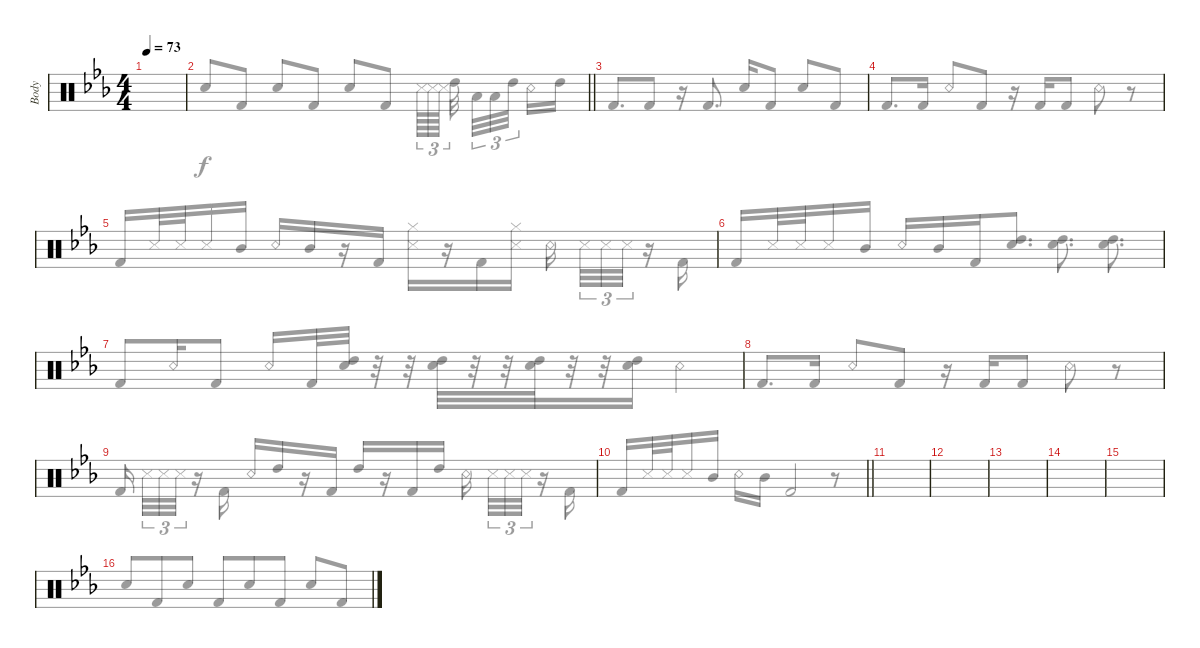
\defaultSystemsLayout 2
\bracketExtendMode groupsimilarinstruments
\otherSystemsTrackNameOrientation horizontal
\track ("Drumkit" "Body ") {instrument percussion}
\staff {score}
\articulation defaults
\voice
\ts (4 4)
\scale
1.05991
\tempo 73
\accidentals auto
\clef neutral
\ottava regular
\simile none
\ks cminor
|
\scale
0.940093
\barLineRight lightlight
|
\scale
1.06459 |
\scale
0.935414 |
\scale
1.06459 |
\scale
0.935414 |
\scale
1.06459 |
\scale
0.935414 |
\scale
1.05991 |
\scale
0.940093
\barLineRight lightlight
|
\beaming (8 3 3 2)
\scale
1.06459 |
\scale
0.935414 |
\scale
1.06459 |
\scale
0.935414 |
\scale
1.06459 |
\scale
0.935414
\voice
\clef neutral
\ottava regular
\simile none
\ks cminor "Snare (hit) 2"{acc forcenatural}.8{dy f beam Up} "Kick (hit) 2"{acc forcenatural}.8{beam Up} "Snare (hit) 2"{acc forcenatural}.8{beam Up} "Kick (hit) 2"{acc forcenatural}.8{beam Up} "Snare (hit) 2"{acc forcenatural}.8{beam Up} "Kick (hit) 2"{acc forcenatural}.8{beam Up} "Snare (hit) 2"{acc forcenatural}.8{beam Up} "Kick (hit) 2"{acc forcenatural}.8{beam Up}
|
\barLineRight lightlight "Snare (hit) 2"{acc forcenatural}.8{beam Up} "Kick (hit) 2"{acc forcenatural}.8{beam Up} "Snare (hit) 2"{acc forcenatural}.8{beam Up} "Kick (hit) 2"{acc forcenatural}.8{beam Up} "Snare (hit) 2"{acc forcenatural}.8{beam Up} "Kick (hit) 2"{acc forcenatural}.8{beam Up} "Snare (side stick) 3"{acc forcenatural}.64{tu (3 2) beam Down} "Snare (side stick) 3"{acc forcenatural}.64{tu (3 2) beam Down} "Snare (side stick) 3"{acc forcenatural}.64{tu (3 2) beam Down} "High Tom (hit)"{acc forcenatural}.32{beam Down} "Low Tom (hit)"{acc forcenatural}.32{tu (3 2) beam Down} "Low Tom (hit)"{acc forcenatural}.32{tu (3 2) beam Down} "High Tom (hit)"{acc forcenatural}.32{tu (3 2) beam Down} "Snare (rim shot)"{acc forcenatural}.16{beam Down} "High Tom (hit)"{acc forcenatural}.16{beam Down}
|
"Kick (hit) 2"{acc forcenatural}.8{d beam Up} "Kick (hit) 2"{acc forcenatural}.8{beam Up} r.16{beam Up} "Kick (hit) 2"{acc forcenatural}.8{d beam Up} "Snare (hit) 2"{acc forcenatural}.16{beam Up} "Kick (hit) 2"{acc forcenatural}.8{beam Up} "Snare (hit) 2"{acc forcenatural}.8{beam Up} "Kick (hit) 2"{acc forcenatural}.8{beam Up} |
"Kick (hit) 2"{acc forcenatural}.8{d beam Up} "Kick (hit) 2"{acc forcenatural}.16{beam Up} "Snare (rim shot)"{acc forcenatural}.8{beam Up} "Kick (hit) 2"{acc forcenatural}.8{beam Up} r.16{beam Up} "Kick (hit) 2"{acc forcenatural}.16{beam Up} "Kick (hit) 2"{acc forcenatural}.8{beam Up} "Snare (rim shot)"{acc forcenatural}.8{beam Down} r.8{beam Down} |
"Kick (hit) 2"{acc forcenatural}.16{beam Up} "Snare (side stick) 3"{acc forcenatural}.32{beam Up} "Snare (side stick) 3"{acc forcenatural}.32{beam Up} "Snare (side stick) 3"{acc forcenatural}.16{beam Up} "Mid Tom (hit)"{acc forcenatural}.16{beam Up} "Snare (rim shot)"{acc forcenatural}.16{beam Up} "Mid Tom (hit)"{acc forcenatural}.16{beam Up} r.16{beam Up} "Kick (hit) 2"{acc forcenatural}.16{beam Up} ("Hi-Hat (closed)"{acc forcenatural} "Snare (side stick) 3"{acc forcenatural}).16{beam Down} r.16{beam Down} "Kick (hit) 2"{acc forcenatural}.16{beam Down} ("Snare (side stick) 3"{acc forcenatural} "Hi-Hat (closed)"{acc forcenatural}).16{beam Down} "Snare (rim shot)"{acc forcenatural}.16{beam Down} "Snare (side stick) 3"{acc forcenatural}.32{tu (3 2) beam Down} "Snare (side stick) 3"{acc forcenatural}.32{tu (3 2) beam Down} "Snare (side stick) 3"{acc forcenatural}.32{tu (3 2) beam Down} r.16{beam Down} "Kick (hit) 2"{acc forcenatural}.16{beam Up} |
"Kick (hit) 2"{acc forcenatural}.16{beam Up} "Snare (side stick) 3"{acc forcenatural}.32{beam Up} "Snare (side stick) 3"{acc forcenatural}.32{beam Up} "Snare (side stick) 3"{acc forcenatural}.16{beam Up} "Mid Tom (hit)"{acc forcenatural}.16{beam Up} "Snare (rim shot)"{acc forcenatural}.16{beam Up} "Mid Tom (hit)"{acc forcenatural}.16{beam Up} "Kick (hit) 2"{acc forcenatural}.16{beam Up} ("Snare (hit) 2"{acc forcenatural} "High Tom (hit)"{acc forcenatural}).8{d beam Up} ("Snare (hit) 2"{acc forcenatural} "High Tom (hit)"{acc forcenatural}).8{d beam Down} ("Snare (hit) 2"{acc forcenatural} "High Tom (hit)"{acc forcenatural}).8{d beam Down} |
"Kick (hit) 2"{acc forcenatural}.8{beam Up} "Snare (rim shot)"{acc forcenatural}.16{beam Up} "Kick (hit) 2"{acc forcenatural}.8{beam Up} "Snare (rim shot)"{acc forcenatural}.16{beam Up} "Kick (hit) 2"{acc forcenatural}.32{beam Up} ("Snare (hit) 2"{acc forcenatural} "High Tom (hit)"{acc forcenatural}).32{beam Up} r.32{beam Up} r.32{beam Up} ("Snare (hit) 2"{acc forcenatural} "High Tom (hit)"{acc forcenatural}).32{beam Down} r.32{beam Down} r.32{beam Down} ("Snare (hit) 2"{acc forcenatural} "High Tom (hit)"{acc forcenatural}).32{beam Down} r.32{beam Down} r.32{beam Down} ("Snare (hit) 2"{acc forcenatural} "High Tom (hit)"{acc forcenatural}).16{beam Down} "Snare (rim shot)"{acc forcenatural}.4{beam Down} |
"Kick (hit) 2"{acc forcenatural}.8{d beam Up} "Kick (hit) 2"{acc forcenatural}.16{beam Up} "Snare (rim shot)"{acc forcenatural}.8{beam Up} "Kick (hit) 2"{acc forcenatural}.8{beam Up} r.16{beam Up} "Kick (hit) 2"{acc forcenatural}.16{beam Up} "Kick (hit) 2"{acc forcenatural}.8{beam Up} "Snare (rim shot)"{acc forcenatural}.8{beam Down} r.8{beam Down} |
"Kick (hit) 2"{acc forcenatural}.16{beam Up} "Snare (side stick) 3"{acc forcenatural}.32{tu (3 2) beam Down} "Snare (side stick) 3"{acc forcenatural}.32{tu (3 2) beam Down} "Snare (side stick) 3"{acc forcenatural}.32{tu (3 2) beam Down} r.16{beam Down} "Kick (hit) 2"{acc forcenatural}.16{beam Up} "Snare (rim shot)"{acc forcenatural}.16{beam Up} "High Tom (hit)"{acc forcenatural}.16{beam Up} r.16{beam Up} "Kick (hit) 2"{acc forcenatural}.16{beam Up} "High Tom (hit)"{acc forcenatural}.16{beam Up} r.16{beam Up} "Kick (hit) 2"{acc forcenatural}.16{beam Up} "High Tom (hit)"{acc forcenatural}.16{beam Up} "Snare (rim shot)"{acc forcenatural}.16{beam Down} "Snare (side stick) 3"{acc forcenatural}.32{tu (3 2) beam Down} "Snare (side stick) 3"{acc forcenatural}.32{tu (3 2) beam Down} "Snare (side stick) 3"{acc forcenatural}.32{tu (3 2) beam Down} r.16{beam Down} "Kick (hit) 2"{acc forcenatural}.16{beam Up} |
\barLineRight lightlight "Kick (hit) 2"{acc forcenatural}.16{beam Up} "Snare (side stick) 3"{acc forcenatural}.32{beam Up} "Snare (side stick) 3"{acc forcenatural}.32{beam Up} "Snare (side stick) 3"{acc forcenatural}.16{beam Up} "Mid Tom (hit)"{acc forcenatural}.16{beam Up} "Snare (rim shot)"{acc forcenatural}.16{beam Down} "Mid Tom (hit)"{acc forcenatural}.16{beam Down} "Kick (hit) 2"{acc forcenatural}.2{fermata (medium 0.43) beam Up}
r.8{beam Up} |
|
|
|
|
|
